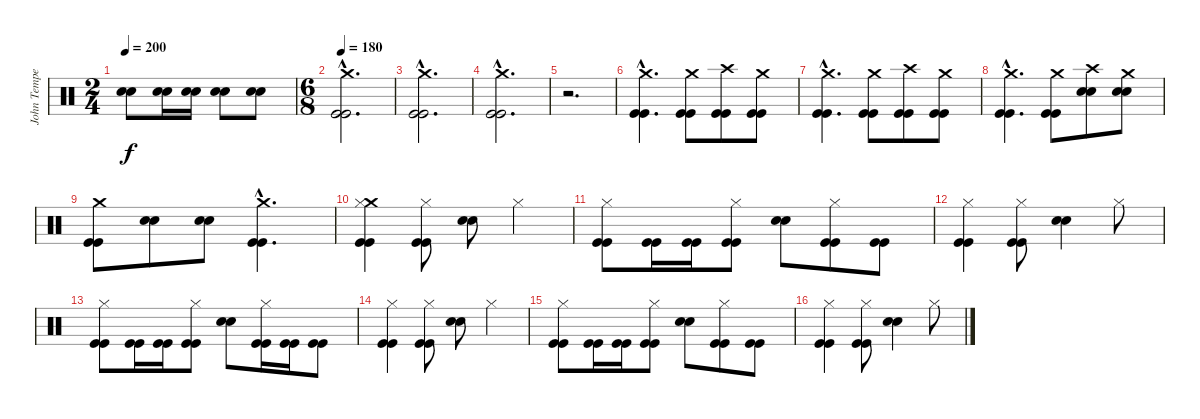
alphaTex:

\track ("John Tempesta" "John Tempe") {instrument percussion}
\staff {score}
\articulation defaults
\ts (2 4)
\tempo 200
\clef neutral
\ks c
("Snare (hit) 2" "Snare (hit) 2").8{dy f} ("Snare (hit) 2" "Snare (hit) 2").16 ("Snare (hit) 2" "Snare (hit) 2").16 ("Snare (hit) 2" "Snare (hit) 2").8 ("Snare (hit) 2" "Snare (hit) 2").8 |
\ts (6 8)
\tempo 180
("Crash medium (hit)"{hac} "Kick (hit)"{hac} "Kick (hit)"{hac}).2{d} |
("Crash medium (hit)"{hac} "Kick (hit)"{hac} "Kick (hit)"{hac}).2{d} |
("Crash medium (hit)"{hac} "Kick (hit)"{hac} "Kick (hit)"{hac}).2{d} |
r.2{d} |
("Crash medium (hit)"{hac} "Kick (hit)"{hac} "Kick (hit)"{hac}).4{d} ("Crash medium (hit)" "Kick (hit)" "Kick (hit)").8 ("Crash high (hit)" "Kick (hit)" "Kick (hit)").8 ("Crash medium (hit)" "Kick (hit)" "Kick (hit)").8 |
("Crash medium (hit)"{hac} "Kick (hit)"{hac} "Kick (hit)"{hac}).4{d} ("Crash medium (hit)" "Kick (hit)" "Kick (hit)").8 ("Crash high (hit)" "Kick (hit)" "Kick (hit)").8 ("Crash medium (hit)" "Kick (hit)" "Kick (hit)").8 |
("Crash medium (hit)"{hac} "Kick (hit)"{hac} "Kick (hit)"{hac}).4{d} ("Crash medium (hit)" "Kick (hit)" "Kick (hit)").8 ("Crash high (hit)" "Snare (hit) 2" "Snare (hit) 2").8 ("Crash medium (hit)" "Snare (hit) 2" "Snare (hit) 2").8 |
("Crash medium (hit)" "Kick (hit)" "Kick (hit)").8 ("Snare (hit) 2" "Snare (hit) 2").8 ("Snare (hit) 2" "Snare (hit) 2").8 ("Crash medium (hit)"{hac} "Kick (hit)"{hac} "Kick (hit)"{hac}).4{d} |
("Crash medium (hit)" "Hi-Hat (closed)" "Kick (hit)" "Kick (hit)").4 ("Hi-Hat (closed)" "Kick (hit)" "Kick (hit)").8 ("Snare (hit) 2" "Snare (hit) 2").8 "Hi-Hat (closed)".4 |
("Hi-Hat (closed)" "Kick (hit)" "Kick (hit)").8 ("Kick (hit)" "Kick (hit)").16 ("Kick (hit)" "Kick (hit)").16 ("Hi-Hat (closed)" "Kick (hit)" "Kick (hit)").8 ("Snare (hit) 2" "Snare (hit) 2").8 ("Hi-Hat (closed)" "Kick (hit)" "Kick (hit)").8 ("Kick (hit)" "Kick (hit)").8 |
("Hi-Hat (closed)" "Kick (hit)" "Kick (hit)").4 ("Hi-Hat (closed)" "Kick (hit)" "Kick (hit)").8 ("Snare (hit) 2" "Snare (hit) 2").4 "Hi-Hat (closed)".8 |
("Hi-Hat (closed)" "Kick (hit)" "Kick (hit)").8 ("Kick (hit)" "Kick (hit)").16 ("Kick (hit)" "Kick (hit)").16 ("Hi-Hat (closed)" "Kick (hit)" "Kick (hit)").8 ("Snare (hit) 2" "Snare (hit) 2").8 ("Hi-Hat (closed)" "Kick (hit)" "Kick (hit)").16 ("Kick (hit)" "Kick (hit)").16 ("Kick (hit)" "Kick (hit)").8 |
("Hi-Hat (closed)" "Kick (hit)" "Kick (hit)").4 ("Hi-Hat (closed)" "Kick (hit)" "Kick (hit)").8 ("Snare (hit) 2" "Snare (hit) 2").8 "Hi-Hat (closed)".4 |
("Hi-Hat (closed)" "Kick (hit)" "Kick (hit)").8 ("Kick (hit)" "Kick (hit)").16 ("Kick (hit)" "Kick (hit)").16 ("Hi-Hat (closed)" "Kick (hit)" "Kick (hit)").8 ("Snare (hit) 2" "Snare (hit) 2").8 ("Hi-Hat (closed)" "Kick (hit)" "Kick (hit)").8 ("Kick (hit)" "Kick (hit)").8 |
("Hi-Hat (closed)" "Kick (hit)" "Kick (hit)").4 ("Hi-Hat (closed)" "Kick (hit)" "Kick (hit)").8 ("Snare (hit) 2" "Snare (hit) 2").4 "Hi-Hat (closed)".8
